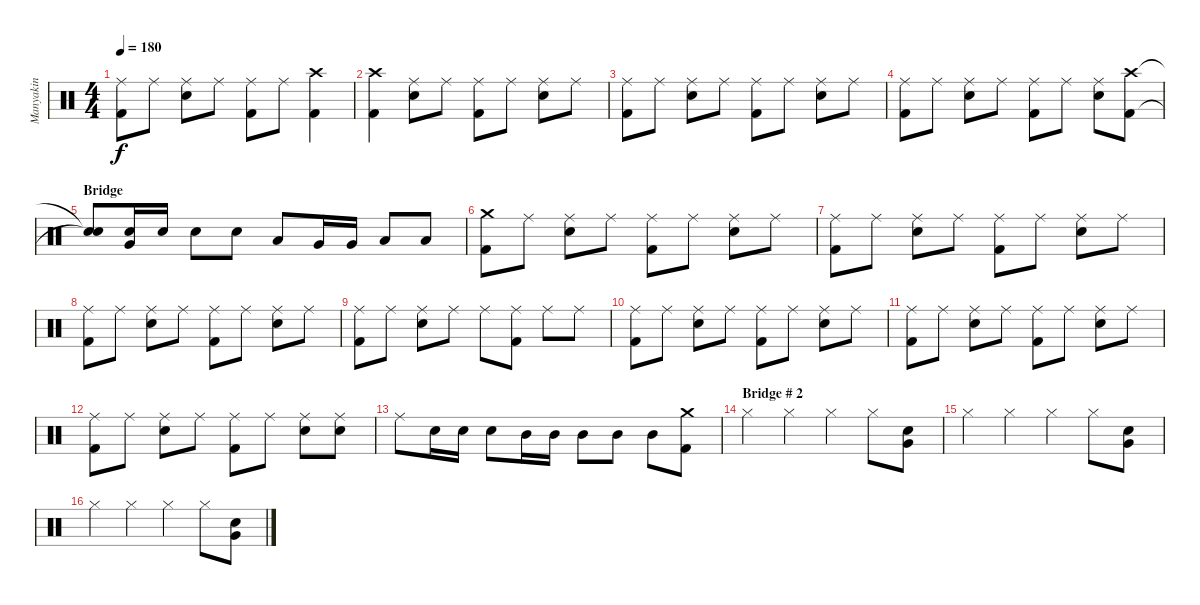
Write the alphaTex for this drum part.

\track ("Manyakin" "Manyakin") {instrument percussion}
\staff {score}
\articulation defaults
\ts (4 4)
\tempo 180
\clef neutral
\ks c
("Kick (hit) 2" "Ride (middle)").8{dy f} "Ride (middle)".8 ("Snare (hit) 2" "Ride (middle)").8 "Ride (middle)".8 ("Kick (hit) 2" "Ride (middle)").8 "Ride (middle)".8 ("Kick (hit) 2" "Crash high (hit)").4 |
("Kick (hit) 2" "Crash high (hit)").4 ("Snare (hit) 2" "Ride (middle)").8 "Ride (middle)".8 ("Kick (hit) 2" "Ride (middle)").8 "Ride (middle)".8 ("Snare (hit) 2" "Ride (middle)").8 "Ride (middle)".8 |
("Kick (hit) 2" "Ride (middle)").8 "Ride (middle)".8 ("Snare (hit) 2" "Ride (middle)").8 "Ride (middle)".8 ("Kick (hit) 2" "Ride (middle)").8 "Ride (middle)".8 ("Snare (hit) 2" "Ride (middle)").8 "Ride (middle)".8 |
("Kick (hit) 2" "Ride (middle)").8 "Ride (middle)".8 ("Snare (hit) 2" "Ride (middle)").8 "Ride (middle)".8 ("Kick (hit) 2" "Ride (middle)").8 "Ride (middle)".8 ("Snare (hit) 2" "Ride (middle)").8 ("Kick (hit) 2" "Crash high (hit)").8 |
\section ("" "Bridge")
("Snare (hit)"{t} "Snare (hit)"{t}).8 ("Very Low Tom (hit)" "Snare (hit) 2").16 "Snare (hit) 2".16 "Snare (hit) 2".8 "Snare (hit) 2".8 "Low Tom (hit)".8 "Very Low Tom (hit)".16 "Very Low Tom (hit)".16 "Low Floor Tom (hit)".8 "Low Floor Tom (hit)".8 |
("Kick (hit) 2" "Crash medium (hit)").8 "Ride (middle)".8 ("Snare (hit) 2" "Ride (middle)").8 "Ride (middle)".8 ("Kick (hit) 2" "Ride (middle)").8 "Ride (middle)".8 ("Snare (hit) 2" "Ride (middle)").8 "Ride (middle)".8 |
("Kick (hit) 2" "Ride (middle)").8 "Ride (middle)".8 ("Snare (hit) 2" "Ride (middle)").8 "Ride (middle)".8 ("Kick (hit) 2" "Ride (middle)").8 "Ride (middle)".8 ("Snare (hit) 2" "Ride (middle)").8 "Ride (middle)".8 |
("Kick (hit) 2" "Ride (middle)").8 "Ride (middle)".8 ("Snare (hit) 2" "Ride (middle)").8 "Ride (middle)".8 ("Kick (hit) 2" "Ride (middle)").8 "Ride (middle)".8 ("Snare (hit) 2" "Ride (middle)").8 "Ride (middle)".8 |
("Kick (hit) 2" "Ride (middle)").8 "Ride (middle)".8 ("Snare (hit) 2" "Ride (middle)").8 "Ride (middle)".8 "Ride (middle)".8 ("Kick (hit) 2" "Ride (middle)").8 "Ride (middle)".8 "Ride (middle)".8 |
("Kick (hit) 2" "Ride (middle)").8 "Ride (middle)".8 ("Snare (hit) 2" "Ride (middle)").8 "Ride (middle)".8 ("Kick (hit) 2" "Ride (middle)").8 "Ride (middle)".8 ("Snare (hit) 2" "Ride (middle)").8 "Ride (middle)".8 |
("Kick (hit) 2" "Ride (middle)").8 "Ride (middle)".8 ("Snare (hit) 2" "Ride (middle)").8 "Ride (middle)".8 ("Kick (hit) 2" "Ride (middle)").8 "Ride (middle)".8 ("Snare (hit) 2" "Ride (middle)").8 "Ride (middle)".8 |
("Kick (hit) 2" "Ride (middle)").8 "Ride (middle)".8 ("Snare (hit) 2" "Ride (middle)").8 "Ride (middle)".8 ("Kick (hit) 2" "Ride (middle)").8 "Ride (middle)".8 ("Snare (hit) 2" "Ride (middle)").8 ("Snare (hit) 2" "Ride (middle)").8 |
"Ride (middle)".8 "Snare (hit) 2".16 "Snare (hit) 2".16 "Snare (hit) 2".8 "Mid Tom (hit)".16 "Mid Tom (hit)".16 "Mid Tom (hit)".8 "Mid Tom (hit)".8 "Mid Tom (hit)".8 ("Kick (hit) 2" "Crash medium (hit)").8 |
\section ("" "Bridge # 2")
"Hi-Hat (closed)".4 "Hi-Hat (closed)".4 "Hi-Hat (closed)".4 "Hi-Hat (closed)".8 ("Snare (hit) 2" "Very Low Tom (hit)").8 |
"Hi-Hat (closed)".4 "Hi-Hat (closed)".4 "Hi-Hat (closed)".4 "Hi-Hat (closed)".8 ("Snare (hit) 2" "Very Low Tom (hit)").8 |
"Hi-Hat (closed)".4 "Hi-Hat (closed)".4 "Hi-Hat (closed)".4 "Hi-Hat (closed)".8 ("Snare (hit) 2" "Very Low Tom (hit)").8
